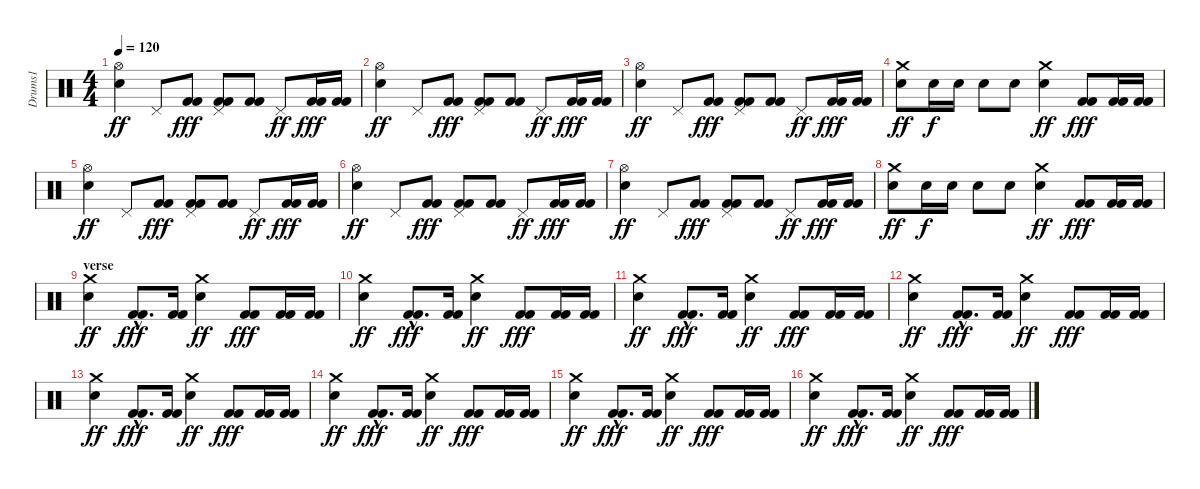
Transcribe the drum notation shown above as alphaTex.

\track ("Drums1" "Drums1") {instrument percussion}
\staff {score}
\articulation defaults
\ts (4 4)
\tempo 120
\clef neutral
\ks c
("Hi-Hat (open)" "Electric Snare (hit)").4{dy ff} "Pedal Hi-Hat (hit)".8 ("Kick (hit) 2" "Kick (hit) 2").8{dy fff} ("Pedal Hi-Hat (hit)" "Kick (hit) 2" "Kick (hit) 2").8 ("Kick (hit) 2" "Kick (hit) 2").8 "Pedal Hi-Hat (hit)".8{dy ff} ("Kick (hit) 2" "Kick (hit) 2").16{dy fff} ("Kick (hit) 2" "Kick (hit) 2").16 |
("Hi-Hat (open)" "Electric Snare (hit)").4{dy ff} "Pedal Hi-Hat (hit)".8 ("Kick (hit) 2" "Kick (hit) 2").8{dy fff} ("Pedal Hi-Hat (hit)" "Kick (hit) 2" "Kick (hit) 2").8 ("Kick (hit) 2" "Kick (hit) 2").8 "Pedal Hi-Hat (hit)".8{dy ff} ("Kick (hit) 2" "Kick (hit) 2").16{dy fff} ("Kick (hit) 2" "Kick (hit) 2").16 |
("Hi-Hat (open)" "Electric Snare (hit)").4{dy ff} "Pedal Hi-Hat (hit)".8 ("Kick (hit) 2" "Kick (hit) 2").8{dy fff} ("Pedal Hi-Hat (hit)" "Kick (hit) 2" "Kick (hit) 2").8 ("Kick (hit) 2" "Kick (hit) 2").8 "Pedal Hi-Hat (hit)".8{dy ff} ("Kick (hit) 2" "Kick (hit) 2").16{dy fff} ("Kick (hit) 2" "Kick (hit) 2").16 |
("Electric Snare (hit)" "Crash medium (hit)").8{dy ff} "Electric Snare (hit)".16{dy f} "Electric Snare (hit)".16 "Electric Snare (hit)".8 "Electric Snare (hit)".8 ("Electric Snare (hit)" "Crash medium (hit)").4{dy ff} ("Kick (hit) 2" "Kick (hit) 2").8{dy fff} ("Kick (hit) 2" "Kick (hit) 2").16 ("Kick (hit) 2" "Kick (hit) 2").16 |
("Hi-Hat (open)" "Electric Snare (hit)").4{dy ff} "Pedal Hi-Hat (hit)".8 ("Kick (hit) 2" "Kick (hit) 2").8{dy fff} ("Pedal Hi-Hat (hit)" "Kick (hit) 2" "Kick (hit) 2").8 ("Kick (hit) 2" "Kick (hit) 2").8 "Pedal Hi-Hat (hit)".8{dy ff} ("Kick (hit) 2" "Kick (hit) 2").16{dy fff} ("Kick (hit) 2" "Kick (hit) 2").16 |
("Hi-Hat (open)" "Electric Snare (hit)").4{dy ff} "Pedal Hi-Hat (hit)".8 ("Kick (hit) 2" "Kick (hit) 2").8{dy fff} ("Pedal Hi-Hat (hit)" "Kick (hit) 2" "Kick (hit) 2").8 ("Kick (hit) 2" "Kick (hit) 2").8 "Pedal Hi-Hat (hit)".8{dy ff} ("Kick (hit) 2" "Kick (hit) 2").16{dy fff} ("Kick (hit) 2" "Kick (hit) 2").16 |
("Hi-Hat (open)" "Electric Snare (hit)").4{dy ff} "Pedal Hi-Hat (hit)".8 ("Kick (hit) 2" "Kick (hit) 2").8{dy fff} ("Pedal Hi-Hat (hit)" "Kick (hit) 2" "Kick (hit) 2").8 ("Kick (hit) 2" "Kick (hit) 2").8 "Pedal Hi-Hat (hit)".8{dy ff} ("Kick (hit) 2" "Kick (hit) 2").16{dy fff} ("Kick (hit) 2" "Kick (hit) 2").16 |
("Electric Snare (hit)" "Crash medium (hit)").8{dy ff} "Electric Snare (hit)".16{dy f} "Electric Snare (hit)".16 "Electric Snare (hit)".8 "Electric Snare (hit)".8 ("Electric Snare (hit)" "Crash medium (hit)").4{dy ff} ("Kick (hit) 2" "Kick (hit) 2").8{dy fff} ("Kick (hit) 2" "Kick (hit) 2").16 ("Kick (hit) 2" "Kick (hit) 2").16 |
\section ("" "verse")
("Crash medium (hit)" "Snare (hit) 2").4{dy ff} ("Kick (hit) 2"{hac} "Kick (hit) 2"{hac}).8{d dy fff} ("Kick (hit) 2" "Kick (hit) 2").16 ("Crash medium (hit)" "Snare (hit) 2").4{dy ff} ("Kick (hit) 2" "Kick (hit) 2").8{dy fff} ("Kick (hit) 2" "Kick (hit) 2").16 ("Kick (hit) 2" "Kick (hit) 2").16 |
("Crash medium (hit)" "Snare (hit) 2").4{dy ff} ("Kick (hit) 2"{hac} "Kick (hit) 2"{hac}).8{d dy fff} ("Kick (hit) 2" "Kick (hit) 2").16 ("Crash medium (hit)" "Snare (hit) 2").4{dy ff} ("Kick (hit) 2" "Kick (hit) 2").8{dy fff} ("Kick (hit) 2" "Kick (hit) 2").16 ("Kick (hit) 2" "Kick (hit) 2").16 |
("Crash medium (hit)" "Snare (hit) 2").4{dy ff} ("Kick (hit) 2"{hac} "Kick (hit) 2"{hac}).8{d dy fff} ("Kick (hit) 2" "Kick (hit) 2").16 ("Crash medium (hit)" "Snare (hit) 2").4{dy ff} ("Kick (hit) 2" "Kick (hit) 2").8{dy fff} ("Kick (hit) 2" "Kick (hit) 2").16 ("Kick (hit) 2" "Kick (hit) 2").16 |
("Crash medium (hit)" "Snare (hit) 2").4{dy ff} ("Kick (hit) 2"{hac} "Kick (hit) 2"{hac}).8{d dy fff} ("Kick (hit) 2" "Kick (hit) 2").16 ("Crash medium (hit)" "Snare (hit) 2").4{dy ff} ("Kick (hit) 2" "Kick (hit) 2").8{dy fff} ("Kick (hit) 2" "Kick (hit) 2").16 ("Kick (hit) 2" "Kick (hit) 2").16 |
("Crash medium (hit)" "Snare (hit) 2").4{dy ff} ("Kick (hit) 2"{hac} "Kick (hit) 2"{hac}).8{d dy fff} ("Kick (hit) 2" "Kick (hit) 2").16 ("Crash medium (hit)" "Snare (hit) 2").4{dy ff} ("Kick (hit) 2" "Kick (hit) 2").8{dy fff} ("Kick (hit) 2" "Kick (hit) 2").16 ("Kick (hit) 2" "Kick (hit) 2").16 |
("Crash medium (hit)" "Snare (hit) 2").4{dy ff} ("Kick (hit) 2"{hac} "Kick (hit) 2"{hac}).8{d dy fff} ("Kick (hit) 2" "Kick (hit) 2").16 ("Crash medium (hit)" "Snare (hit) 2").4{dy ff} ("Kick (hit) 2" "Kick (hit) 2").8{dy fff} ("Kick (hit) 2" "Kick (hit) 2").16 ("Kick (hit) 2" "Kick (hit) 2").16 |
("Crash medium (hit)" "Snare (hit) 2").4{dy ff} ("Kick (hit) 2"{hac} "Kick (hit) 2"{hac}).8{d dy fff} ("Kick (hit) 2" "Kick (hit) 2").16 ("Crash medium (hit)" "Snare (hit) 2").4{dy ff} ("Kick (hit) 2" "Kick (hit) 2").8{dy fff} ("Kick (hit) 2" "Kick (hit) 2").16 ("Kick (hit) 2" "Kick (hit) 2").16 |
("Crash medium (hit)" "Snare (hit) 2").4{dy ff} ("Kick (hit) 2"{hac} "Kick (hit) 2"{hac}).8{d dy fff} ("Kick (hit) 2" "Kick (hit) 2").16 ("Crash medium (hit)" "Snare (hit) 2").4{dy ff} ("Kick (hit) 2" "Kick (hit) 2").8{dy fff} ("Kick (hit) 2" "Kick (hit) 2").16 ("Kick (hit) 2" "Kick (hit) 2").16
